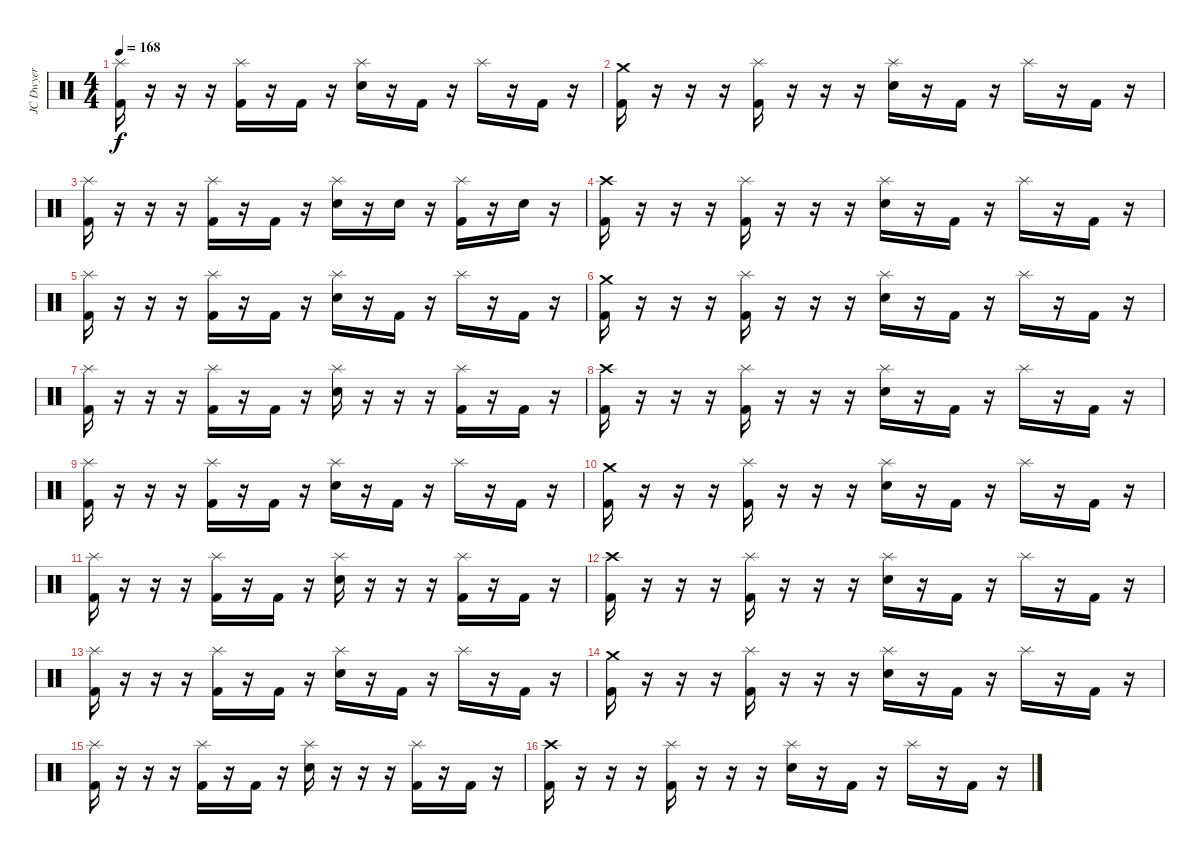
\track ("JC Dwyer" "JC Dwyer") {instrument percussion}
\staff {score}
\articulation defaults
\ts (4 4)
\tempo 168
\clef neutral
\ks c
("Splash (hit)" "Kick (hit) 2").16{dy f} r.16 r.16 r.16 ("Splash (hit)" "Kick (hit) 2").16 r.16 "Kick (hit) 2".16 r.16 ("Splash (hit)" "Electric Snare (hit)").16 r.16 "Kick (hit) 2".16 r.16 "Splash (hit)".16 r.16 "Kick (hit) 2".16 r.16 |
("Crash medium (hit)" "Kick (hit) 2").16 r.16 r.16 r.16 ("Splash (hit)" "Kick (hit) 2").16 r.16 r.16 r.16 ("Splash (hit)" "Electric Snare (hit)").16 r.16 "Kick (hit) 2".16 r.16 "Splash (hit)".16 r.16 "Kick (hit) 2".16 r.16 |
("Splash (hit)" "Kick (hit) 2").16 r.16 r.16 r.16 ("Splash (hit)" "Kick (hit) 2").16 r.16 "Kick (hit) 2".16 r.16 ("Splash (hit)" "Electric Snare (hit)").16 r.16 "Electric Snare (hit)".16 r.16 ("Splash (hit)" "Kick (hit) 2").16 r.16 "Electric Snare (hit)".16 r.16 |
("Crash high (hit)" "Kick (hit) 2").16 r.16 r.16 r.16 ("Splash (hit)" "Kick (hit) 2").16 r.16 r.16 r.16 ("Splash (hit)" "Electric Snare (hit)").16 r.16 "Kick (hit) 2".16 r.16 "Splash (hit)".16 r.16 "Kick (hit) 2".16 r.16 |
("Splash (hit)" "Kick (hit) 2").16 r.16 r.16 r.16 ("Splash (hit)" "Kick (hit) 2").16 r.16 "Kick (hit) 2".16 r.16 ("Splash (hit)" "Electric Snare (hit)").16 r.16 "Kick (hit) 2".16 r.16 "Splash (hit)".16 r.16 "Kick (hit) 2".16 r.16 |
("Crash medium (hit)" "Kick (hit) 2").16 r.16 r.16 r.16 ("Splash (hit)" "Kick (hit) 2").16 r.16 r.16 r.16 ("Splash (hit)" "Electric Snare (hit)").16 r.16 "Kick (hit) 2".16 r.16 "Splash (hit)".16 r.16 "Kick (hit) 2".16 r.16 |
("Splash (hit)" "Kick (hit) 2").16 r.16 r.16 r.16 ("Splash (hit)" "Kick (hit) 2").16 r.16 "Kick (hit) 2".16 r.16 ("Splash (hit)" "Electric Snare (hit)").16 r.16 r.16 r.16 ("Splash (hit)" "Kick (hit) 2").16 r.16 "Kick (hit) 2".16 r.16 |
("Crash high (hit)" "Kick (hit) 2").16 r.16 r.16 r.16 ("Splash (hit)" "Kick (hit) 2").16 r.16 r.16 r.16 ("Splash (hit)" "Electric Snare (hit)").16 r.16 "Kick (hit) 2".16 r.16 "Splash (hit)".16 r.16 "Kick (hit) 2".16 r.16 |
("Splash (hit)" "Kick (hit) 2").16 r.16 r.16 r.16 ("Splash (hit)" "Kick (hit) 2").16 r.16 "Kick (hit) 2".16 r.16 ("Splash (hit)" "Electric Snare (hit)").16 r.16 "Kick (hit) 2".16 r.16 "Splash (hit)".16 r.16 "Kick (hit) 2".16 r.16 |
("Crash medium (hit)" "Kick (hit) 2").16 r.16 r.16 r.16 ("Splash (hit)" "Kick (hit) 2").16 r.16 r.16 r.16 ("Splash (hit)" "Electric Snare (hit)").16 r.16 "Kick (hit) 2".16 r.16 "Splash (hit)".16 r.16 "Kick (hit) 2".16 r.16 |
("Splash (hit)" "Kick (hit) 2").16 r.16 r.16 r.16 ("Splash (hit)" "Kick (hit) 2").16 r.16 "Kick (hit) 2".16 r.16 ("Splash (hit)" "Electric Snare (hit)").16 r.16 r.16 r.16 ("Splash (hit)" "Kick (hit) 2").16 r.16 "Kick (hit) 2".16 r.16 |
("Crash high (hit)" "Kick (hit) 2").16 r.16 r.16 r.16 ("Splash (hit)" "Kick (hit) 2").16 r.16 r.16 r.16 ("Splash (hit)" "Electric Snare (hit)").16 r.16 "Kick (hit) 2".16 r.16 "Splash (hit)".16 r.16 "Kick (hit) 2".16 r.16 |
("Splash (hit)" "Kick (hit) 2").16 r.16 r.16 r.16 ("Splash (hit)" "Kick (hit) 2").16 r.16 "Kick (hit) 2".16 r.16 ("Splash (hit)" "Electric Snare (hit)").16 r.16 "Kick (hit) 2".16 r.16 "Splash (hit)".16 r.16 "Kick (hit) 2".16 r.16 |
("Crash medium (hit)" "Kick (hit) 2").16 r.16 r.16 r.16 ("Splash (hit)" "Kick (hit) 2").16 r.16 r.16 r.16 ("Splash (hit)" "Electric Snare (hit)").16 r.16 "Kick (hit) 2".16 r.16 "Splash (hit)".16 r.16 "Kick (hit) 2".16 r.16 |
("Splash (hit)" "Kick (hit) 2").16 r.16 r.16 r.16 ("Splash (hit)" "Kick (hit) 2").16 r.16 "Kick (hit) 2".16 r.16 ("Splash (hit)" "Electric Snare (hit)").16 r.16 r.16 r.16 ("Splash (hit)" "Kick (hit) 2").16 r.16 "Kick (hit) 2".16 r.16 |
("Crash high (hit)" "Kick (hit) 2").16 r.16 r.16 r.16 ("Splash (hit)" "Kick (hit) 2").16 r.16 r.16 r.16 ("Splash (hit)" "Electric Snare (hit)").16 r.16 "Kick (hit) 2".16 r.16 "Splash (hit)".16 r.16 "Kick (hit) 2".16 r.16
